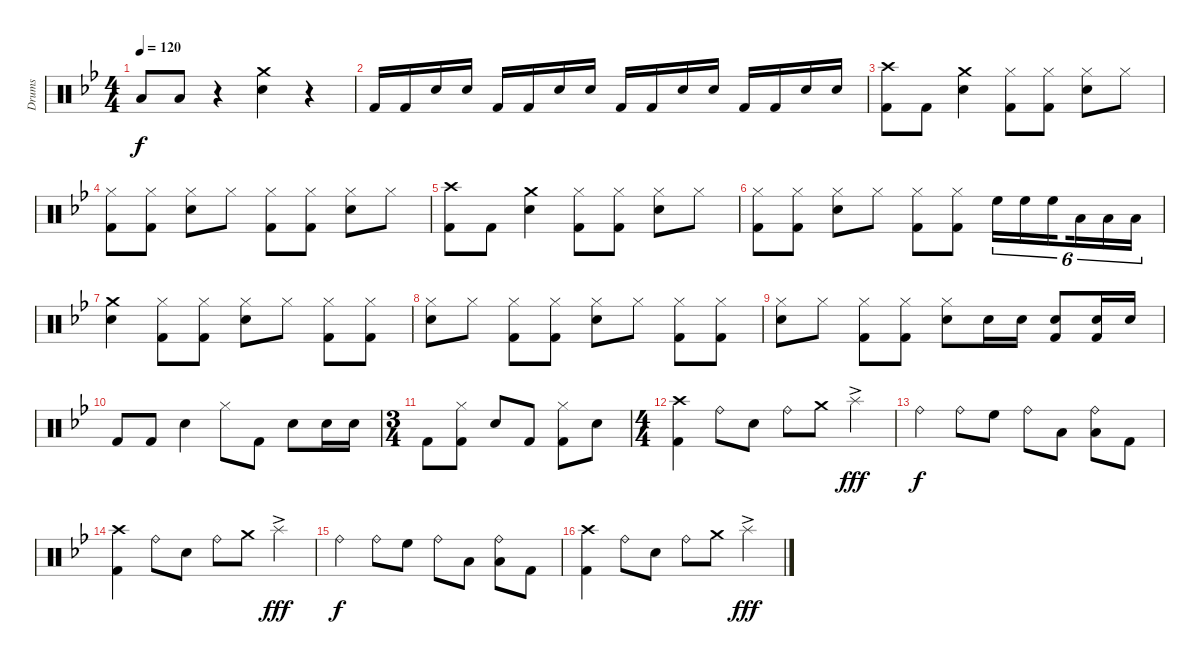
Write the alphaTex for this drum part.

\track ("Drums" "Drums") {instrument percussion}
\staff {score}
\articulation defaults
\ts (4 4)
\tempo 120
\clef neutral
\ks bb "Low Floor Tom (hit)".8{dy f} "Low Floor Tom (hit)".8
r.4 ("Crash medium (hit)" "Electric Snare (hit)").4 r.4 |
"Kick (hit) 2".16 "Kick (hit) 2".16 "Electric Snare (hit)".16 "Electric Snare (hit)".16 "Kick (hit) 2".16 "Kick (hit) 2".16 "Electric Snare (hit)".16 "Electric Snare (hit)".16 "Kick (hit) 2".16 "Kick (hit) 2".16 "Electric Snare (hit)".16 "Electric Snare (hit)".16 "Kick (hit) 2".16 "Kick (hit) 2".16 "Electric Snare (hit)".16 "Electric Snare (hit)".16 |
("Crash high (hit)" "Kick (hit) 2").8 "Kick (hit) 2".8 ("Crash medium (hit)" "Electric Snare (hit)").4 ("Hi-Hat (closed)" "Kick (hit) 2").8 ("Hi-Hat (closed)" "Kick (hit) 2").8 ("Hi-Hat (closed)" "Electric Snare (hit)").8 "Hi-Hat (closed)".8 |
("Hi-Hat (closed)" "Kick (hit) 2").8 ("Hi-Hat (closed)" "Kick (hit) 2").8 ("Hi-Hat (closed)" "Electric Snare (hit)").8 "Hi-Hat (closed)".8 ("Hi-Hat (closed)" "Kick (hit) 2").8 ("Hi-Hat (closed)" "Kick (hit) 2").8 ("Hi-Hat (closed)" "Electric Snare (hit)").8 "Hi-Hat (closed)".8 |
("Crash high (hit)" "Kick (hit) 2").8 "Kick (hit) 2".8 ("Crash medium (hit)" "Electric Snare (hit)").4 ("Hi-Hat (closed)" "Kick (hit) 2").8 ("Hi-Hat (closed)" "Kick (hit) 2").8 ("Hi-Hat (closed)" "Electric Snare (hit)").8 "Hi-Hat (closed)".8 |
("Hi-Hat (closed)" "Kick (hit) 2").8 ("Hi-Hat (closed)" "Kick (hit) 2").8 ("Hi-Hat (closed)" "Electric Snare (hit)").8 "Hi-Hat (closed)".8 ("Hi-Hat (closed)" "Kick (hit) 2").8 ("Hi-Hat (closed)" "Kick (hit) 2").8 "High Floor Tom (hit)".16{tu (6 4)} "High Floor Tom (hit)".16{tu (6 4)} "High Floor Tom (hit)".16{tu (6 4) beam splitsecondary} "Low Tom (hit)".16{tu (6 4)} "Low Tom (hit)".16{tu (6 4)} "Low Tom (hit)".16{tu (6 4)} |
("Crash medium (hit)" "Electric Snare (hit)").4 ("Hi-Hat (closed)" "Kick (hit) 2").8 ("Hi-Hat (closed)" "Kick (hit) 2").8 ("Hi-Hat (closed)" "Electric Snare (hit)").8 "Hi-Hat (closed)".8 ("Hi-Hat (closed)" "Kick (hit) 2").8 ("Hi-Hat (closed)" "Kick (hit) 2").8 |
("Hi-Hat (closed)" "Electric Snare (hit)").8 "Hi-Hat (closed)".8 ("Hi-Hat (closed)" "Kick (hit) 2").8 ("Hi-Hat (closed)" "Kick (hit) 2").8 ("Hi-Hat (closed)" "Electric Snare (hit)").8 "Hi-Hat (closed)".8 ("Hi-Hat (closed)" "Kick (hit) 2").8 ("Hi-Hat (closed)" "Kick (hit) 2").8 |
("Hi-Hat (closed)" "Electric Snare (hit)").8 "Hi-Hat (closed)".8 ("Hi-Hat (closed)" "Kick (hit) 2").8 ("Hi-Hat (closed)" "Kick (hit) 2").8 ("Hi-Hat (closed)" "Electric Snare (hit)").8 "Electric Snare (hit)".16 "Electric Snare (hit)".16 ("Electric Snare (hit)" "Kick (hit) 2").8 ("Electric Snare (hit)" "Kick (hit) 2").16 "Electric Snare (hit)".16 |
"Kick (hit) 2".8 "Kick (hit) 2".8 "Electric Snare (hit)".4 "Hi-Hat (closed)".8 "Kick (hit) 2".8 "Electric Snare (hit)".8 "Electric Snare (hit)".16 "Electric Snare (hit)".16 |
\ts (3 4)
"Kick (hit) 2".8 ("Hi-Hat (closed)" "Kick (hit) 2").8 "Electric Snare (hit)".8 "Kick (hit) 2".8 ("Hi-Hat (closed)" "Kick (hit) 2").8 "Electric Snare (hit)".8 |
\ts (4 4)
("Crash high (hit)" "Kick (hit) 2").4 "Ride (bell)".8 "Electric Snare (hit)".8 "Ride (bell)".8 "Crash medium (hit)".8 "Splash (hit)"{ac}.4{dy fff} |
"Ride (bell)".4{dy f} "Ride (bell)".8 "High Floor Tom (hit)".8 "Ride (bell)".8 "Low Tom (hit)".8 ("Ride (bell)" "Low Tom (hit)").8 "Kick (hit) 2".8 |
("Crash high (hit)" "Kick (hit) 2").4 "Ride (bell)".8 "Electric Snare (hit)".8 "Ride (bell)".8 "Crash medium (hit)".8 "Splash (hit)"{ac}.4{dy fff} |
"Ride (bell)".4{dy f} "Ride (bell)".8 "High Floor Tom (hit)".8 "Ride (bell)".8 "Low Tom (hit)".8 ("Ride (bell)" "Low Tom (hit)").8 "Kick (hit) 2".8 |
("Crash high (hit)" "Kick (hit) 2").4 "Ride (bell)".8 "Electric Snare (hit)".8 "Ride (bell)".8 "Crash medium (hit)".8 "Splash (hit)"{ac}.4{dy fff}
